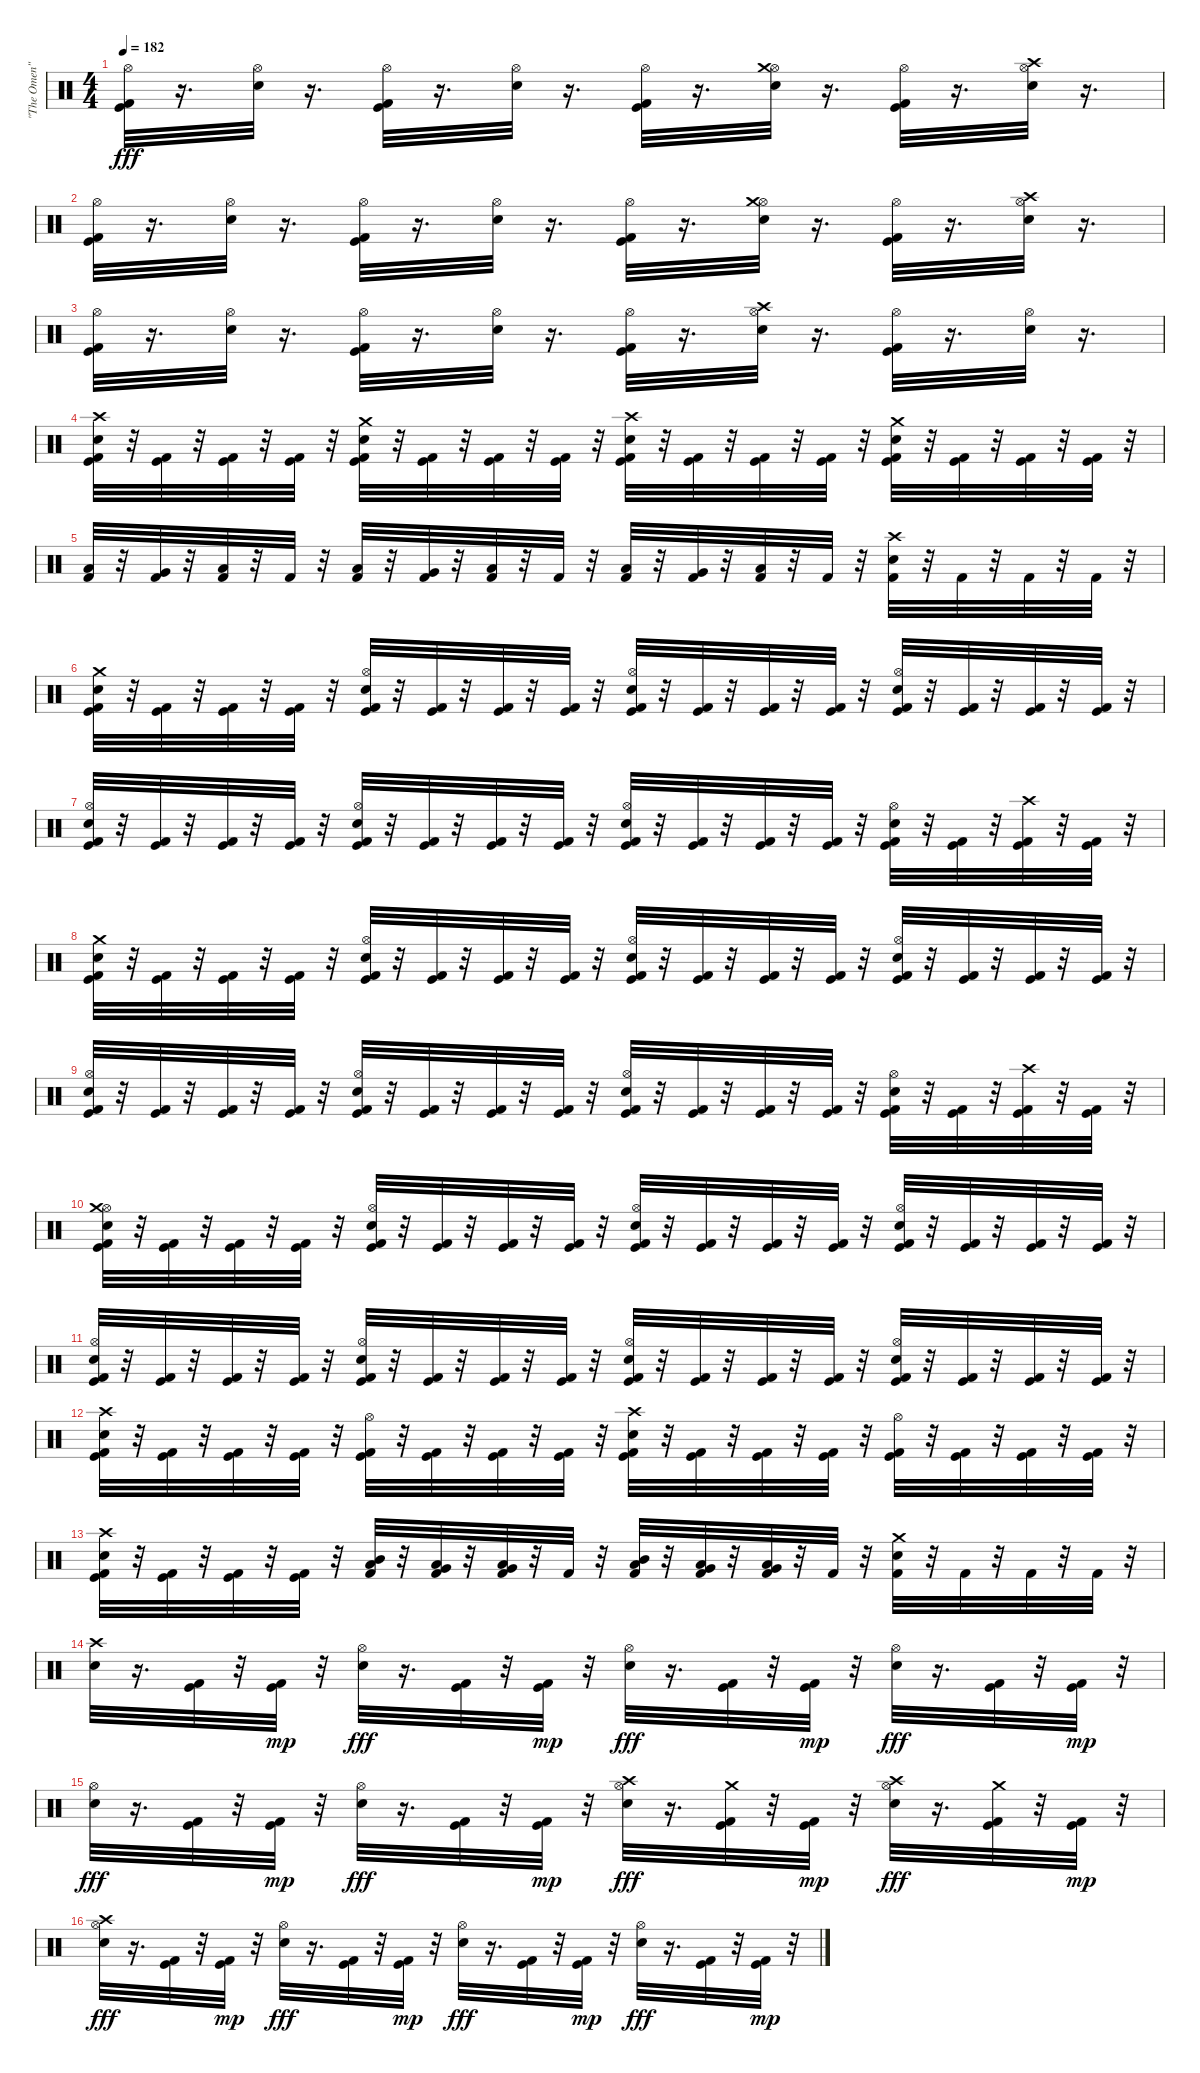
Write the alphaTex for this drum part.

\track ("\"The Omen\"" "\"The Omen\"") {instrument percussion}
\staff {score}
\articulation defaults
\ts (4 4)
\tempo 182
\clef neutral
\ks c
("Kick (hit)" "Kick (hit) 2" "Hi-Hat (open)").32{dy fff} r.16{d} ("Snare (hit) 2" "Hi-Hat (open)").32 r.16{d} ("Kick (hit)" "Kick (hit) 2" "Hi-Hat (open)").32 r.16{d} ("Snare (hit) 2" "Hi-Hat (open)").32 r.16{d} ("Kick (hit)" "Kick (hit) 2" "Hi-Hat (open)").32 r.16{d} ("Snare (hit) 2" "Hi-Hat (open)" "Crash medium (hit)").32 r.16{d} ("Kick (hit)" "Kick (hit) 2" "Hi-Hat (open)").32 r.16{d} ("Snare (hit) 2" "Hi-Hat (open)" "Crash high (hit)").32 r.16{d} |
("Kick (hit)" "Kick (hit) 2" "Hi-Hat (open)").32 r.16{d} ("Snare (hit) 2" "Hi-Hat (open)").32 r.16{d} ("Kick (hit)" "Kick (hit) 2" "Hi-Hat (open)").32 r.16{d} ("Snare (hit) 2" "Hi-Hat (open)").32 r.16{d} ("Kick (hit)" "Kick (hit) 2" "Hi-Hat (open)").32 r.16{d} ("Snare (hit) 2" "Hi-Hat (open)" "Crash medium (hit)").32 r.16{d} ("Kick (hit)" "Kick (hit) 2" "Hi-Hat (open)").32 r.16{d} ("Snare (hit) 2" "Hi-Hat (open)" "Crash high (hit)").32 r.16{d} |
("Kick (hit)" "Kick (hit) 2" "Hi-Hat (open)").32 r.16{d} ("Snare (hit) 2" "Hi-Hat (open)").32 r.16{d} ("Kick (hit)" "Kick (hit) 2" "Hi-Hat (open)").32 r.16{d} ("Snare (hit) 2" "Hi-Hat (open)").32 r.16{d} ("Kick (hit)" "Kick (hit) 2" "Hi-Hat (open)").32 r.16{d} ("Snare (hit) 2" "Hi-Hat (open)" "Crash high (hit)").32 r.16{d} ("Kick (hit)" "Kick (hit) 2" "Hi-Hat (open)").32 r.16{d} ("Snare (hit) 2" "Hi-Hat (open)").32 r.16{d} |
("Kick (hit)" "Kick (hit) 2" "Snare (hit) 2" "Crash high (hit)").32 r.32 ("Kick (hit)" "Kick (hit) 2").32 r.32 ("Kick (hit)" "Kick (hit) 2").32 r.32 ("Kick (hit)" "Kick (hit) 2").32 r.32 ("Kick (hit)" "Kick (hit) 2" "Snare (hit) 2" "Crash medium (hit)").32 r.32 ("Kick (hit)" "Kick (hit) 2").32 r.32 ("Kick (hit)" "Kick (hit) 2").32 r.32 ("Kick (hit)" "Kick (hit) 2").32 r.32 ("Kick (hit)" "Kick (hit) 2" "Snare (hit) 2" "Crash high (hit)").32 r.32 ("Kick (hit)" "Kick (hit) 2").32 r.32 ("Kick (hit)" "Kick (hit) 2").32 r.32 ("Kick (hit)" "Kick (hit) 2").32 r.32 ("Kick (hit)" "Kick (hit) 2" "Snare (hit) 2" "Crash medium (hit)").32 r.32 ("Kick (hit)" "Kick (hit) 2").32 r.32 ("Kick (hit)" "Kick (hit) 2").32 r.32 ("Kick (hit)" "Kick (hit) 2").32 r.32 |
("Kick (hit) 2" "Low Tom (hit)").32 r.32 ("Kick (hit) 2" "Very Low Tom (hit)").32 r.32 ("Kick (hit) 2" "Low Floor Tom (hit)").32 r.32 "Kick (hit) 2".32 r.32 ("Kick (hit) 2" "Low Tom (hit)").32 r.32 ("Kick (hit) 2" "Very Low Tom (hit)").32 r.32 ("Kick (hit) 2" "Low Floor Tom (hit)").32 r.32 "Kick (hit) 2".32 r.32 ("Kick (hit) 2" "Low Tom (hit)").32 r.32 ("Kick (hit) 2" "Very Low Tom (hit)").32 r.32 ("Kick (hit) 2" "Low Floor Tom (hit)").32 r.32 "Kick (hit) 2".32 r.32 ("Kick (hit) 2" "Snare (hit) 2" "Crash high (hit)").32 r.32 "Kick (hit) 2".32 r.32 "Kick (hit) 2".32 r.32 "Kick (hit) 2".32 r.32 |
("Kick (hit)" "Kick (hit) 2" "Snare (hit) 2" "Crash medium (hit)").32 r.32 ("Kick (hit)" "Kick (hit) 2").32 r.32 ("Kick (hit)" "Kick (hit) 2").32 r.32 ("Kick (hit)" "Kick (hit) 2").32 r.32 ("Kick (hit)" "Kick (hit) 2" "Snare (hit) 2" "Hi-Hat (open)").32 r.32 ("Kick (hit)" "Kick (hit) 2").32 r.32 ("Kick (hit)" "Kick (hit) 2").32 r.32 ("Kick (hit)" "Kick (hit) 2").32 r.32 ("Kick (hit)" "Kick (hit) 2" "Snare (hit) 2" "Hi-Hat (open)").32 r.32 ("Kick (hit)" "Kick (hit) 2").32 r.32 ("Kick (hit)" "Kick (hit) 2").32 r.32 ("Kick (hit)" "Kick (hit) 2").32 r.32 ("Kick (hit)" "Kick (hit) 2" "Snare (hit) 2" "Hi-Hat (open)").32 r.32 ("Kick (hit)" "Kick (hit) 2").32 r.32 ("Kick (hit)" "Kick (hit) 2").32 r.32 ("Kick (hit)" "Kick (hit) 2").32 r.32 |
("Kick (hit)" "Kick (hit) 2" "Snare (hit) 2" "Hi-Hat (open)").32 r.32 ("Kick (hit)" "Kick (hit) 2").32 r.32 ("Kick (hit)" "Kick (hit) 2").32 r.32 ("Kick (hit)" "Kick (hit) 2").32 r.32 ("Kick (hit)" "Kick (hit) 2" "Snare (hit) 2" "Hi-Hat (open)").32 r.32 ("Kick (hit)" "Kick (hit) 2").32 r.32 ("Kick (hit)" "Kick (hit) 2").32 r.32 ("Kick (hit)" "Kick (hit) 2").32 r.32 ("Kick (hit)" "Kick (hit) 2" "Snare (hit) 2" "Hi-Hat (open)").32 r.32 ("Kick (hit)" "Kick (hit) 2").32 r.32 ("Kick (hit)" "Kick (hit) 2").32 r.32 ("Kick (hit)" "Kick (hit) 2").32 r.32 ("Kick (hit)" "Kick (hit) 2" "Snare (hit) 2" "Hi-Hat (open)").32 r.32 ("Kick (hit)" "Kick (hit) 2").32 r.32 ("Kick (hit)" "Kick (hit) 2" "Crash high (hit)").32 r.32 ("Kick (hit)" "Kick (hit) 2").32 r.32 |
("Kick (hit)" "Kick (hit) 2" "Snare (hit) 2" "Crash medium (hit)").32 r.32 ("Kick (hit)" "Kick (hit) 2").32 r.32 ("Kick (hit)" "Kick (hit) 2").32 r.32 ("Kick (hit)" "Kick (hit) 2").32 r.32 ("Kick (hit)" "Kick (hit) 2" "Snare (hit) 2" "Hi-Hat (open)").32 r.32 ("Kick (hit)" "Kick (hit) 2").32 r.32 ("Kick (hit)" "Kick (hit) 2").32 r.32 ("Kick (hit)" "Kick (hit) 2").32 r.32 ("Kick (hit)" "Kick (hit) 2" "Snare (hit) 2" "Hi-Hat (open)").32 r.32 ("Kick (hit)" "Kick (hit) 2").32 r.32 ("Kick (hit)" "Kick (hit) 2").32 r.32 ("Kick (hit)" "Kick (hit) 2").32 r.32 ("Kick (hit)" "Kick (hit) 2" "Snare (hit) 2" "Hi-Hat (open)").32 r.32 ("Kick (hit)" "Kick (hit) 2").32 r.32 ("Kick (hit)" "Kick (hit) 2").32 r.32 ("Kick (hit)" "Kick (hit) 2").32 r.32 |
("Kick (hit)" "Kick (hit) 2" "Snare (hit) 2" "Hi-Hat (open)").32 r.32 ("Kick (hit)" "Kick (hit) 2").32 r.32 ("Kick (hit)" "Kick (hit) 2").32 r.32 ("Kick (hit)" "Kick (hit) 2").32 r.32 ("Kick (hit)" "Kick (hit) 2" "Snare (hit) 2" "Hi-Hat (open)").32 r.32 ("Kick (hit)" "Kick (hit) 2").32 r.32 ("Kick (hit)" "Kick (hit) 2").32 r.32 ("Kick (hit)" "Kick (hit) 2").32 r.32 ("Kick (hit)" "Kick (hit) 2" "Snare (hit) 2" "Hi-Hat (open)").32 r.32 ("Kick (hit)" "Kick (hit) 2").32 r.32 ("Kick (hit)" "Kick (hit) 2").32 r.32 ("Kick (hit)" "Kick (hit) 2").32 r.32 ("Kick (hit)" "Kick (hit) 2" "Snare (hit) 2" "Hi-Hat (open)").32 r.32 ("Kick (hit)" "Kick (hit) 2").32 r.32 ("Kick (hit)" "Kick (hit) 2" "Crash high (hit)").32 r.32 ("Kick (hit)" "Kick (hit) 2").32 r.32 |
("Kick (hit)" "Kick (hit) 2" "Snare (hit) 2" "Hi-Hat (open)" "Crash medium (hit)").32 r.32 ("Kick (hit)" "Kick (hit) 2").32 r.32 ("Kick (hit)" "Kick (hit) 2").32 r.32 ("Kick (hit)" "Kick (hit) 2").32 r.32 ("Kick (hit)" "Kick (hit) 2" "Snare (hit) 2" "Hi-Hat (open)").32 r.32 ("Kick (hit)" "Kick (hit) 2").32 r.32 ("Kick (hit)" "Kick (hit) 2").32 r.32 ("Kick (hit)" "Kick (hit) 2").32 r.32 ("Kick (hit)" "Kick (hit) 2" "Snare (hit) 2" "Hi-Hat (open)").32 r.32 ("Kick (hit)" "Kick (hit) 2").32 r.32 ("Kick (hit)" "Kick (hit) 2").32 r.32 ("Kick (hit)" "Kick (hit) 2").32 r.32 ("Kick (hit)" "Kick (hit) 2" "Snare (hit) 2" "Hi-Hat (open)").32 r.32 ("Kick (hit)" "Kick (hit) 2").32 r.32 ("Kick (hit)" "Kick (hit) 2").32 r.32 ("Kick (hit)" "Kick (hit) 2").32 r.32 |
("Kick (hit)" "Kick (hit) 2" "Snare (hit) 2" "Hi-Hat (open)").32 r.32 ("Kick (hit)" "Kick (hit) 2").32 r.32 ("Kick (hit)" "Kick (hit) 2").32 r.32 ("Kick (hit)" "Kick (hit) 2").32 r.32 ("Kick (hit)" "Kick (hit) 2" "Snare (hit) 2" "Hi-Hat (open)").32 r.32 ("Kick (hit)" "Kick (hit) 2").32 r.32 ("Kick (hit)" "Kick (hit) 2").32 r.32 ("Kick (hit)" "Kick (hit) 2").32 r.32 ("Kick (hit)" "Kick (hit) 2" "Snare (hit) 2" "Hi-Hat (open)").32 r.32 ("Kick (hit)" "Kick (hit) 2").32 r.32 ("Kick (hit)" "Kick (hit) 2").32 r.32 ("Kick (hit)" "Kick (hit) 2").32 r.32 ("Kick (hit)" "Kick (hit) 2" "Snare (hit) 2" "Hi-Hat (open)").32 r.32 ("Kick (hit)" "Kick (hit) 2").32 r.32 ("Kick (hit)" "Kick (hit) 2").32 r.32 ("Kick (hit)" "Kick (hit) 2").32 r.32 |
("Kick (hit)" "Kick (hit) 2" "Snare (hit) 2" "Crash high (hit)").32 r.32 ("Kick (hit)" "Kick (hit) 2").32 r.32 ("Kick (hit)" "Kick (hit) 2").32 r.32 ("Kick (hit)" "Kick (hit) 2").32 r.32 ("Kick (hit)" "Kick (hit) 2" "Hi-Hat (open)").32 r.32 ("Kick (hit)" "Kick (hit) 2").32 r.32 ("Kick (hit)" "Kick (hit) 2").32 r.32 ("Kick (hit)" "Kick (hit) 2").32 r.32 ("Kick (hit)" "Kick (hit) 2" "Snare (hit) 2" "Crash high (hit)").32 r.32 ("Kick (hit)" "Kick (hit) 2").32 r.32 ("Kick (hit)" "Kick (hit) 2").32 r.32 ("Kick (hit)" "Kick (hit) 2").32 r.32 ("Kick (hit)" "Kick (hit) 2" "Hi-Hat (open)").32 r.32 ("Kick (hit)" "Kick (hit) 2").32 r.32 ("Kick (hit)" "Kick (hit) 2").32 r.32 ("Kick (hit)" "Kick (hit) 2").32 r.32 |
("Kick (hit)" "Kick (hit) 2" "Snare (hit) 2" "Crash high (hit)").32 r.32 ("Kick (hit)" "Kick (hit) 2").32 r.32 ("Kick (hit)" "Kick (hit) 2").32 r.32 ("Kick (hit)" "Kick (hit) 2").32 r.32 ("Kick (hit) 2" "Low Tom (hit)" "Mid Tom (hit)").32 r.32 ("Kick (hit) 2" "Very Low Tom (hit)" "Low Tom (hit)").32 r.32 ("Kick (hit) 2" "Low Floor Tom (hit)" "Very Low Tom (hit)").32 r.32 "Kick (hit) 2".32 r.32 ("Kick (hit) 2" "Low Tom (hit)" "Mid Tom (hit)").32 r.32 ("Kick (hit) 2" "Very Low Tom (hit)" "Low Tom (hit)").32 r.32 ("Kick (hit) 2" "Low Floor Tom (hit)" "Very Low Tom (hit)").32 r.32 "Kick (hit) 2".32 r.32 ("Kick (hit) 2" "Snare (hit) 2" "Crash medium (hit)").32 r.32 "Kick (hit) 2".32 r.32 "Kick (hit) 2".32 r.32 "Kick (hit) 2".32 r.32 |
("Snare (hit) 2" "Crash high (hit)").32 r.16{d} ("Kick (hit)" "Kick (hit) 2").32 r.32 ("Kick (hit)" "Kick (hit) 2").32{dy mp} r.32 ("Snare (hit) 2" "Hi-Hat (open)").32{dy fff} r.16{d} ("Kick (hit)" "Kick (hit) 2").32 r.32 ("Kick (hit)" "Kick (hit) 2").32{dy mp} r.32 ("Snare (hit) 2" "Hi-Hat (open)").32{dy fff} r.16{d} ("Kick (hit)" "Kick (hit) 2").32 r.32 ("Kick (hit)" "Kick (hit) 2").32{dy mp} r.32 ("Snare (hit) 2" "Hi-Hat (open)").32{dy fff} r.16{d} ("Kick (hit)" "Kick (hit) 2").32 r.32 ("Kick (hit)" "Kick (hit) 2").32{dy mp} r.32 |
("Snare (hit) 2" "Hi-Hat (open)").32{dy fff} r.16{d} ("Kick (hit)" "Kick (hit) 2").32 r.32 ("Kick (hit)" "Kick (hit) 2").32{dy mp} r.32 ("Snare (hit) 2" "Hi-Hat (open)").32{dy fff} r.16{d} ("Kick (hit)" "Kick (hit) 2").32 r.32 ("Kick (hit)" "Kick (hit) 2").32{dy mp} r.32 ("Snare (hit) 2" "Hi-Hat (open)" "Crash high (hit)").32{dy fff} r.16{d} ("Kick (hit)" "Kick (hit) 2" "Crash medium (hit)").32 r.32 ("Kick (hit)" "Kick (hit) 2").32{dy mp} r.32 ("Snare (hit) 2" "Hi-Hat (open)" "Crash high (hit)").32{dy fff} r.16{d} ("Kick (hit)" "Kick (hit) 2" "Crash medium (hit)").32 r.32 ("Kick (hit)" "Kick (hit) 2").32{dy mp} r.32 |
("Snare (hit) 2" "Hi-Hat (open)" "Crash high (hit)").32{dy fff} r.16{d} ("Kick (hit)" "Kick (hit) 2").32 r.32 ("Kick (hit)" "Kick (hit) 2").32{dy mp} r.32 ("Snare (hit) 2" "Hi-Hat (open)").32{dy fff} r.16{d} ("Kick (hit)" "Kick (hit) 2").32 r.32 ("Kick (hit)" "Kick (hit) 2").32{dy mp} r.32 ("Snare (hit) 2" "Hi-Hat (open)").32{dy fff} r.16{d} ("Kick (hit)" "Kick (hit) 2").32 r.32 ("Kick (hit)" "Kick (hit) 2").32{dy mp} r.32 ("Snare (hit) 2" "Hi-Hat (open)").32{dy fff} r.16{d} ("Kick (hit)" "Kick (hit) 2").32 r.32 ("Kick (hit)" "Kick (hit) 2").32{dy mp} r.32
